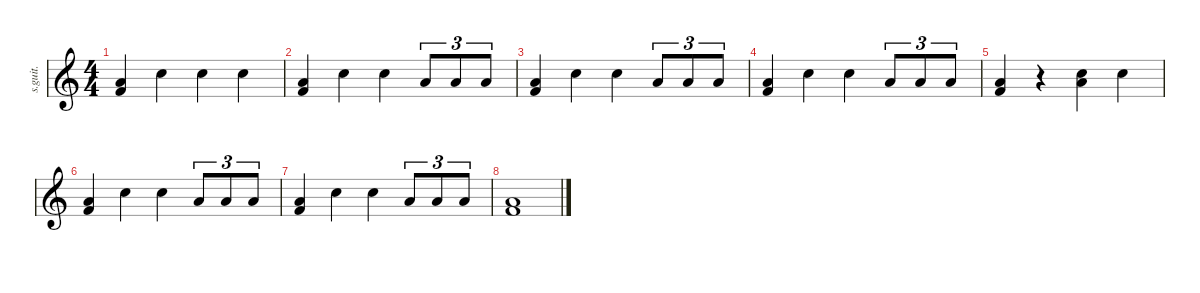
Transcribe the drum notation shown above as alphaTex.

\defaultSystemsLayout 4
\hideDynamics
\bracketExtendMode nobrackets
\track ("Daniel Platzman - Drums" "s.guit.") {instrument percussion}
\staff {score}
\articulation defaults
\ts (4 4)
\tempo (125 hide)
\clef g2
\ks c
("Low Floor Tom (hit)" "Kick (hit) 2").4{lyrics (0 "") lyrics (1 "") lyrics (2 "") lyrics (3 "") lyrics (4 "") dy f} "Hand Clap (hit)".4{lyrics (0 "") lyrics (1 "") lyrics (2 "") lyrics (3 "") lyrics (4 "")} "Electric Snare (hit)".4{lyrics (0 "") lyrics (1 "") lyrics (2 "") lyrics (3 "") lyrics (4 "")} "Hand Clap (hit)".4{lyrics (0 "") lyrics (1 "") lyrics (2 "") lyrics (3 "") lyrics (4 "")} |
("Low Floor Tom (hit)" "Kick (hit) 2").4{lyrics (0 "") lyrics (1 "") lyrics (2 "") lyrics (3 "") lyrics (4 "")} "Hand Clap (hit)".4{lyrics (0 "") lyrics (1 "") lyrics (2 "") lyrics (3 "") lyrics (4 "")} "Electric Snare (hit)".4{lyrics (0 "") lyrics (1 "") lyrics (2 "") lyrics (3 "") lyrics (4 "")} "Low Floor Tom (hit)".8{tu (3 2) lyrics (0 "") lyrics (1 "") lyrics (2 "") lyrics (3 "") lyrics (4 "")} "Low Floor Tom (hit)".8{tu (3 2) lyrics (0 "") lyrics (1 "") lyrics (2 "") lyrics (3 "") lyrics (4 "")} "Low Floor Tom (hit)".8{tu (3 2) lyrics (0 "") lyrics (1 "") lyrics (2 "") lyrics (3 "") lyrics (4 "")} |
("Low Floor Tom (hit)" "Kick (hit) 2").4{lyrics (0 "") lyrics (1 "") lyrics (2 "") lyrics (3 "") lyrics (4 "")} "Hand Clap (hit)".4{lyrics (0 "") lyrics (1 "") lyrics (2 "") lyrics (3 "") lyrics (4 "")} "Electric Snare (hit)".4{lyrics (0 "") lyrics (1 "") lyrics (2 "") lyrics (3 "") lyrics (4 "")} "Low Floor Tom (hit)".8{tu (3 2) lyrics (0 "") lyrics (1 "") lyrics (2 "") lyrics (3 "") lyrics (4 "")} "Low Floor Tom (hit)".8{tu (3 2) lyrics (0 "") lyrics (1 "") lyrics (2 "") lyrics (3 "") lyrics (4 "")} "Low Floor Tom (hit)".8{tu (3 2) lyrics (0 "") lyrics (1 "") lyrics (2 "") lyrics (3 "") lyrics (4 "")} |
("Low Floor Tom (hit)" "Kick (hit) 2").4{lyrics (0 "") lyrics (1 "") lyrics (2 "") lyrics (3 "") lyrics (4 "")} "Hand Clap (hit)".4{lyrics (0 "") lyrics (1 "") lyrics (2 "") lyrics (3 "") lyrics (4 "")} "Electric Snare (hit)".4{lyrics (0 "") lyrics (1 "") lyrics (2 "") lyrics (3 "") lyrics (4 "")} "Low Floor Tom (hit)".8{tu (3 2) lyrics (0 "") lyrics (1 "") lyrics (2 "") lyrics (3 "") lyrics (4 "")} "Low Floor Tom (hit)".8{tu (3 2) lyrics (0 "") lyrics (1 "") lyrics (2 "") lyrics (3 "") lyrics (4 "")} "Low Floor Tom (hit)".8{tu (3 2) lyrics (0 "") lyrics (1 "") lyrics (2 "") lyrics (3 "") lyrics (4 "")} |
("Low Floor Tom (hit)" "Kick (hit) 2").4{lyrics (0 "") lyrics (1 "") lyrics (2 "") lyrics (3 "") lyrics (4 "")} r.4 ("Low Floor Tom (hit)" "Electric Snare (hit)").4{lyrics (0 "") lyrics (1 "") lyrics (2 "") lyrics (3 "") lyrics (4 "")} "Hand Clap (hit)".4{lyrics (0 "") lyrics (1 "") lyrics (2 "") lyrics (3 "") lyrics (4 "")} |
("Low Floor Tom (hit)" "Kick (hit) 2").4{lyrics (0 "") lyrics (1 "") lyrics (2 "") lyrics (3 "") lyrics (4 "")} "Hand Clap (hit)".4{lyrics (0 "") lyrics (1 "") lyrics (2 "") lyrics (3 "") lyrics (4 "")} "Electric Snare (hit)".4{lyrics (0 "") lyrics (1 "") lyrics (2 "") lyrics (3 "") lyrics (4 "")} "Low Floor Tom (hit)".8{tu (3 2) lyrics (0 "") lyrics (1 "") lyrics (2 "") lyrics (3 "") lyrics (4 "")} "Low Floor Tom (hit)".8{tu (3 2) lyrics (0 "") lyrics (1 "") lyrics (2 "") lyrics (3 "") lyrics (4 "")} "Low Floor Tom (hit)".8{tu (3 2) lyrics (0 "") lyrics (1 "") lyrics (2 "") lyrics (3 "") lyrics (4 "")} |
("Low Floor Tom (hit)" "Kick (hit) 2").4{lyrics (0 "") lyrics (1 "") lyrics (2 "") lyrics (3 "") lyrics (4 "")} "Hand Clap (hit)".4{lyrics (0 "") lyrics (1 "") lyrics (2 "") lyrics (3 "") lyrics (4 "")} "Electric Snare (hit)".4{lyrics (0 "") lyrics (1 "") lyrics (2 "") lyrics (3 "") lyrics (4 "")} "Low Floor Tom (hit)".8{tu (3 2) lyrics (0 "") lyrics (1 "") lyrics (2 "") lyrics (3 "") lyrics (4 "")} "Low Floor Tom (hit)".8{tu (3 2) lyrics (0 "") lyrics (1 "") lyrics (2 "") lyrics (3 "") lyrics (4 "")} "Low Floor Tom (hit)".8{tu (3 2) lyrics (0 "") lyrics (1 "") lyrics (2 "") lyrics (3 "") lyrics (4 "")} |
("Low Floor Tom (hit)" "Kick (hit) 2").1{lyrics (0 "") lyrics (1 "") lyrics (2 "") lyrics (3 "") lyrics (4 "")}
